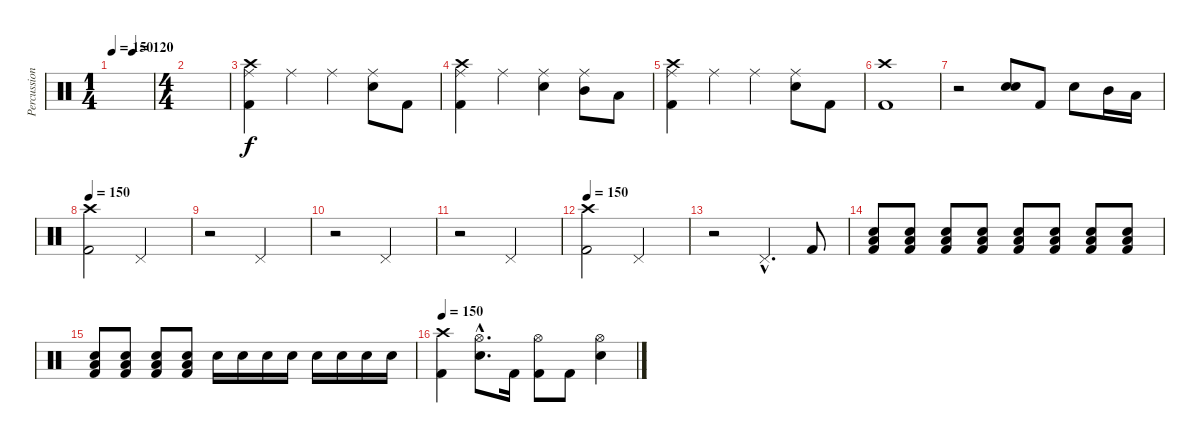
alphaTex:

\track ("Percussion" "Percussion") {instrument percussion}
\staff {score}
\articulation defaults
\ts (1 4)
\tempo 150
\tempo (120 0.5)
\tempo 150
\clef neutral
\ks c
|
\ts (4 4)
|
("Crash high (hit)" "Ride (middle)" "Kick (hit) 2").4 "Ride (middle)".4 "Ride (middle)".4 ("Ride (middle)" "Snare (hit) 2").8 "Kick (hit) 2".8 |
("Crash high (hit)" "Ride (middle)" "Kick (hit) 2").4 "Ride (middle)".4 ("Ride (middle)" "Snare (hit) 2").4 ("Ride (middle)" "Mid Tom (hit)").8 "Low Floor Tom (hit)".8 |
("Crash high (hit)" "Ride (middle)" "Kick (hit) 2").4 "Ride (middle)".4 "Ride (middle)".4 ("Ride (middle)" "Snare (hit) 2").8 "Kick (hit) 2".8 |
("Crash high (hit)" "Kick (hit) 2").1 |
r.2 ("Snare (hit) 2" "Snare (hit) 2").8{bd 120} "Kick (hit) 2".8 "Snare (hit) 2".8 "Mid Tom (hit)".16 "Low Floor Tom (hit)".16 |
\tempo 150
("Crash high (hit)" "Kick (hit) 2").2 "Pedal Hi-Hat (hit)".2 |
r.2 "Pedal Hi-Hat (hit)".2 |
r.2 "Pedal Hi-Hat (hit)".2 |
r.2 "Pedal Hi-Hat (hit)".2 |
\tempo 150
("Crash high (hit)" "Kick (hit) 2").2 "Pedal Hi-Hat (hit)".2 |
r.2 "Pedal Hi-Hat (hit)"{hac}.4{d} "Kick (hit) 2".8 |
("Low Floor Tom (hit)" "Snare (hit) 2" "Kick (hit) 2").8 ("Low Floor Tom (hit)" "Snare (hit) 2" "Kick (hit) 2").8 ("Low Floor Tom (hit)" "Snare (hit) 2" "Kick (hit) 2").8 ("Low Floor Tom (hit)" "Snare (hit) 2" "Kick (hit) 2").8 ("Low Floor Tom (hit)" "Snare (hit) 2" "Kick (hit) 2").8 ("Low Floor Tom (hit)" "Snare (hit) 2" "Kick (hit) 2").8 ("Low Floor Tom (hit)" "Snare (hit) 2" "Kick (hit) 2").8 ("Low Floor Tom (hit)" "Snare (hit) 2" "Kick (hit) 2").8 |
("Low Floor Tom (hit)" "Snare (hit) 2" "Kick (hit) 2").8 ("Low Floor Tom (hit)" "Snare (hit) 2" "Kick (hit) 2").8 ("Low Floor Tom (hit)" "Snare (hit) 2" "Kick (hit) 2").8 ("Low Floor Tom (hit)" "Snare (hit) 2" "Kick (hit) 2").8 "Snare (hit) 2".16 "Snare (hit) 2".16 "Snare (hit) 2".16 "Snare (hit) 2".16 "Snare (hit) 2".16 "Snare (hit) 2".16 "Snare (hit) 2".16 "Snare (hit) 2".16 |
\tempo 150
("Crash high (hit)" "Kick (hit) 2").4 ("Hi-Hat (open)"{hac} "Snare (hit) 2"{hac}).8{d} "Kick (hit) 2".16 ("Hi-Hat (open)" "Kick (hit) 2").8 "Kick (hit) 2".8 ("Hi-Hat (open)" "Snare (hit) 2").4
